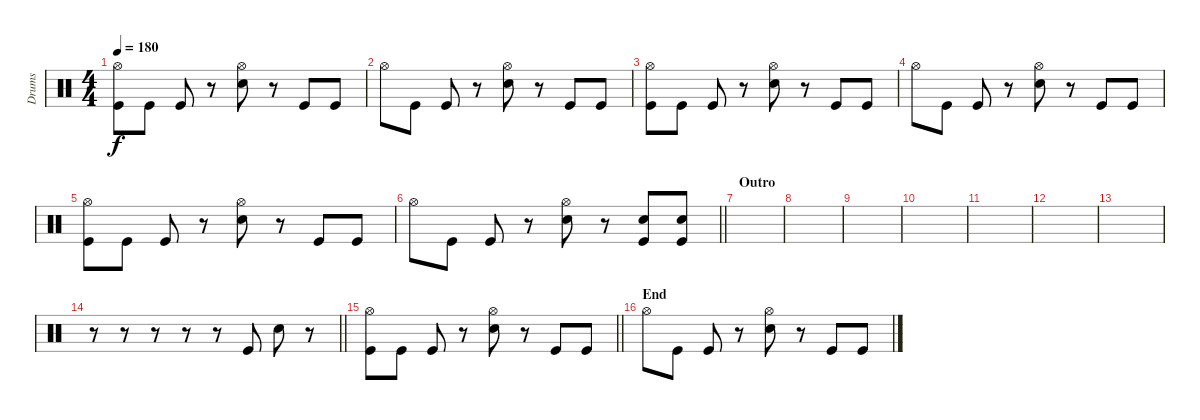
\track ("Drums" "Drums") {instrument percussion}
\staff {score}
\articulation defaults
\ts (4 4)
\tempo 180
\clef neutral
\ks c
("Hi-Hat (open)" "Kick (hit)").8{dy f} "Kick (hit)".8 "Kick (hit)".8 r.8 ("Hi-Hat (open)" "Electric Snare (hit)").8 r.8 "Kick (hit)".8 "Kick (hit)".8 |
"Hi-Hat (open)".8 "Kick (hit)".8 "Kick (hit)".8 r.8 ("Hi-Hat (open)" "Electric Snare (hit)").8 r.8 "Kick (hit)".8 "Kick (hit)".8 |
("Hi-Hat (open)" "Kick (hit)").8 "Kick (hit)".8 "Kick (hit)".8 r.8 ("Hi-Hat (open)" "Electric Snare (hit)").8 r.8 "Kick (hit)".8 "Kick (hit)".8 |
"Hi-Hat (open)".8 "Kick (hit)".8 "Kick (hit)".8 r.8 ("Hi-Hat (open)" "Electric Snare (hit)").8 r.8 "Kick (hit)".8 "Kick (hit)".8 |
("Hi-Hat (open)" "Kick (hit)").8 "Kick (hit)".8 "Kick (hit)".8 r.8 ("Hi-Hat (open)" "Electric Snare (hit)").8 r.8 "Kick (hit)".8 "Kick (hit)".8 |
\barLineRight lightlight "Hi-Hat (open)".8 "Kick (hit)".8 "Kick (hit)".8
r.8 ("Hi-Hat (open)" "Electric Snare (hit)").8 r.8 ("Electric Snare (hit)" "Kick (hit)").8 ("Electric Snare (hit)" "Kick (hit)").8 |
\section ("" "Outro")
|
|
|
|
|
|
|
\barLineRight lightlight
r.8 r.8 r.8 r.8 r.8 "Kick (hit)".8 "Electric Snare (hit)".8 r.8 |
\barLineRight lightlight
("Hi-Hat (open)" "Kick (hit)").8 "Kick (hit)".8 "Kick (hit)".8 r.8 ("Hi-Hat (open)" "Electric Snare (hit)").8 r.8 "Kick (hit)".8 "Kick (hit)".8 |
\section ("" "End")
"Hi-Hat (open)".8 "Kick (hit)".8 "Kick (hit)".8 r.8 ("Hi-Hat (open)" "Electric Snare (hit)").8 r.8 "Kick (hit)".8 "Kick (hit)".8
